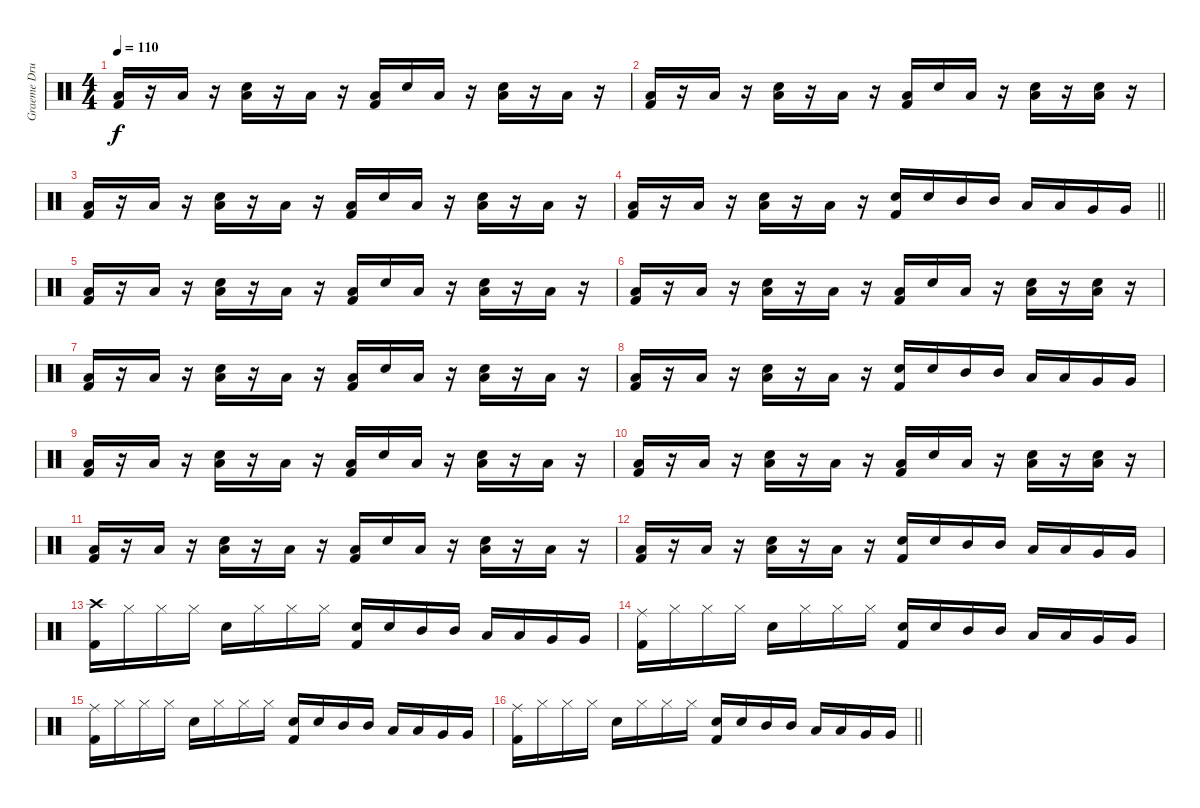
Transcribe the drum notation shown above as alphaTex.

\track ("Graeme Drums" "Graeme Dru") {instrument percussion}
\staff {score}
\articulation defaults
\ts (4 4)
\tempo 110
\clef neutral
\ks c
("Kick (hit) 2" "Low Tom (hit)").16{dy f} r.16 "Low Tom (hit)".16 r.16 ("Low Tom (hit)" "Snare (hit) 2").16 r.16 "Low Tom (hit)".16 r.16 ("Kick (hit) 2" "Low Tom (hit)").16 "Snare (hit) 2".16 "Low Tom (hit)".16 r.16 ("Low Tom (hit)" "Snare (hit) 2").16 r.16 "Low Tom (hit)".16 r.16 |
("Kick (hit) 2" "Low Tom (hit)").16 r.16 "Low Tom (hit)".16 r.16 ("Low Tom (hit)" "Snare (hit) 2").16 r.16 "Low Tom (hit)".16 r.16 ("Kick (hit) 2" "Low Tom (hit)").16 "Snare (hit) 2".16 "Low Tom (hit)".16 r.16 ("Low Tom (hit)" "Snare (hit) 2").16 r.16 ("Low Tom (hit)" "Snare (hit) 2").16 r.16 |
("Kick (hit) 2" "Low Tom (hit)").16 r.16 "Low Tom (hit)".16 r.16 ("Low Tom (hit)" "Snare (hit) 2").16 r.16 "Low Tom (hit)".16 r.16 ("Kick (hit) 2" "Low Tom (hit)").16 "Snare (hit) 2".16 "Low Tom (hit)".16 r.16 ("Low Tom (hit)" "Snare (hit) 2").16 r.16 "Low Tom (hit)".16 r.16 |
\barLineRight lightlight
("Kick (hit) 2" "Low Tom (hit)").16 r.16 "Low Tom (hit)".16 r.16 ("Low Tom (hit)" "Snare (hit) 2").16 r.16 "Low Tom (hit)".16 r.16 ("Kick (hit) 2" "Snare (hit) 2").16 "Snare (hit) 2".16 "Mid Tom (hit)".16 "Mid Tom (hit)".16 "Low Tom (hit)".16 "Low Tom (hit)".16 "Very Low Tom (hit)".16 "Very Low Tom (hit)".16 |
("Kick (hit) 2" "Low Tom (hit)").16 r.16 "Low Tom (hit)".16 r.16 ("Low Tom (hit)" "Snare (hit) 2").16 r.16 "Low Tom (hit)".16 r.16 ("Kick (hit) 2" "Low Tom (hit)").16 "Snare (hit) 2".16 "Low Tom (hit)".16 r.16 ("Low Tom (hit)" "Snare (hit) 2").16 r.16 "Low Tom (hit)".16 r.16 |
("Kick (hit) 2" "Low Tom (hit)").16 r.16 "Low Tom (hit)".16 r.16 ("Low Tom (hit)" "Snare (hit) 2").16 r.16 "Low Tom (hit)".16 r.16 ("Kick (hit) 2" "Low Tom (hit)").16 "Snare (hit) 2".16 "Low Tom (hit)".16 r.16 ("Low Tom (hit)" "Snare (hit) 2").16 r.16 ("Low Tom (hit)" "Snare (hit) 2").16 r.16 |
("Kick (hit) 2" "Low Tom (hit)").16 r.16 "Low Tom (hit)".16 r.16 ("Low Tom (hit)" "Snare (hit) 2").16 r.16 "Low Tom (hit)".16 r.16 ("Kick (hit) 2" "Low Tom (hit)").16 "Snare (hit) 2".16 "Low Tom (hit)".16 r.16 ("Low Tom (hit)" "Snare (hit) 2").16 r.16 "Low Tom (hit)".16 r.16 |
("Kick (hit) 2" "Low Tom (hit)").16 r.16 "Low Tom (hit)".16 r.16 ("Low Tom (hit)" "Snare (hit) 2").16 r.16 "Low Tom (hit)".16 r.16 ("Kick (hit) 2" "Snare (hit) 2").16 "Snare (hit) 2".16 "Mid Tom (hit)".16 "Mid Tom (hit)".16 "Low Tom (hit)".16 "Low Tom (hit)".16 "Very Low Tom (hit)".16 "Very Low Tom (hit)".16 |
("Kick (hit) 2" "Low Tom (hit)").16 r.16 "Low Tom (hit)".16 r.16 ("Low Tom (hit)" "Snare (hit) 2").16 r.16 "Low Tom (hit)".16 r.16 ("Kick (hit) 2" "Low Tom (hit)").16 "Snare (hit) 2".16 "Low Tom (hit)".16 r.16 ("Low Tom (hit)" "Snare (hit) 2").16 r.16 "Low Tom (hit)".16 r.16 |
("Kick (hit) 2" "Low Tom (hit)").16 r.16 "Low Tom (hit)".16 r.16 ("Low Tom (hit)" "Snare (hit) 2").16 r.16 "Low Tom (hit)".16 r.16 ("Kick (hit) 2" "Low Tom (hit)").16 "Snare (hit) 2".16 "Low Tom (hit)".16 r.16 ("Low Tom (hit)" "Snare (hit) 2").16 r.16 ("Low Tom (hit)" "Snare (hit) 2").16 r.16 |
("Kick (hit) 2" "Low Tom (hit)").16 r.16 "Low Tom (hit)".16 r.16 ("Low Tom (hit)" "Snare (hit) 2").16 r.16 "Low Tom (hit)".16 r.16 ("Kick (hit) 2" "Low Tom (hit)").16 "Snare (hit) 2".16 "Low Tom (hit)".16 r.16 ("Low Tom (hit)" "Snare (hit) 2").16 r.16 "Low Tom (hit)".16 r.16 |
("Kick (hit) 2" "Low Tom (hit)").16 r.16 "Low Tom (hit)".16 r.16 ("Low Tom (hit)" "Snare (hit) 2").16 r.16 "Low Tom (hit)".16 r.16 ("Kick (hit) 2" "Snare (hit) 2").16 "Snare (hit) 2".16 "Mid Tom (hit)".16 "Mid Tom (hit)".16 "Low Tom (hit)".16 "Low Tom (hit)".16 "Very Low Tom (hit)".16 "Very Low Tom (hit)".16 |
("Kick (hit) 2" "Crash high (hit)").16 "Hi-Hat (closed)".16 "Hi-Hat (closed)".16 "Hi-Hat (closed)".16 "Snare (hit) 2".16 "Hi-Hat (closed)".16 "Hi-Hat (closed)".16 "Hi-Hat (closed)".16 ("Kick (hit) 2" "Snare (hit) 2").16 "Snare (hit) 2".16 "Mid Tom (hit)".16 "Mid Tom (hit)".16 "Low Tom (hit)".16 "Low Tom (hit)".16 "Very Low Tom (hit)".16 "Very Low Tom (hit)".16 |
("Kick (hit) 2" "Ride (middle)").16 "Hi-Hat (closed)".16 "Hi-Hat (closed)".16 "Hi-Hat (closed)".16 "Snare (hit) 2".16 "Hi-Hat (closed)".16 "Hi-Hat (closed)".16 "Hi-Hat (closed)".16 ("Kick (hit) 2" "Snare (hit) 2").16 "Snare (hit) 2".16 "Mid Tom (hit)".16 "Mid Tom (hit)".16 "Low Tom (hit)".16 "Low Tom (hit)".16 "Very Low Tom (hit)".16 "Very Low Tom (hit)".16 |
("Kick (hit) 2" "Ride (middle)").16 "Hi-Hat (closed)".16 "Hi-Hat (closed)".16 "Hi-Hat (closed)".16 "Snare (hit) 2".16 "Hi-Hat (closed)".16 "Hi-Hat (closed)".16 "Hi-Hat (closed)".16 ("Kick (hit) 2" "Snare (hit) 2").16 "Snare (hit) 2".16 "Mid Tom (hit)".16 "Mid Tom (hit)".16 "Low Tom (hit)".16 "Low Tom (hit)".16 "Very Low Tom (hit)".16 "Very Low Tom (hit)".16 |
\barLineRight lightlight
("Kick (hit) 2" "Ride (middle)").16 "Hi-Hat (closed)".16 "Hi-Hat (closed)".16 "Hi-Hat (closed)".16 "Snare (hit) 2".16 "Hi-Hat (closed)".16 "Hi-Hat (closed)".16 "Hi-Hat (closed)".16 ("Kick (hit) 2" "Snare (hit) 2").16 "Snare (hit) 2".16 "Mid Tom (hit)".16 "Mid Tom (hit)".16 "Low Tom (hit)".16 "Low Tom (hit)".16 "Very Low Tom (hit)".16 "Very Low Tom (hit)".16
